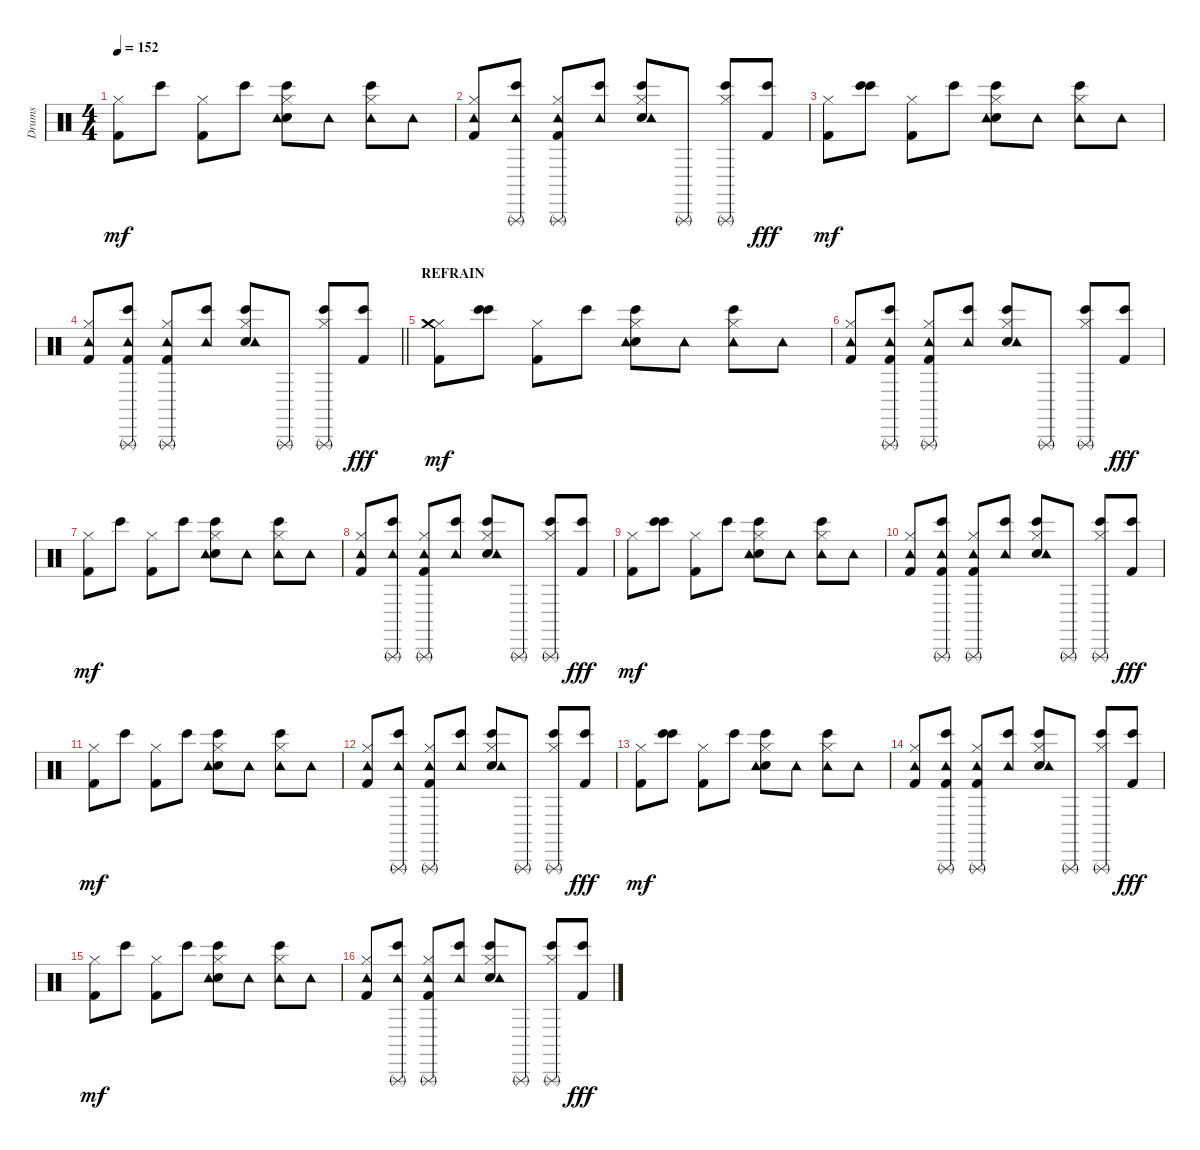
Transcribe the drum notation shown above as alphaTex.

\track ("Drums" "Drums") {instrument percussion}
\staff {score}
\articulation defaults
\ts (4 4)
\tempo 152
\clef neutral
\ks c
("Kick (hit) 2" "Hi-Hat (closed)").8{dy mf} "Bongo High (hit)".8 ("Kick (hit) 2" "Hi-Hat (closed)").8 "Bongo High (hit)".8 ("Bongo High (hit)" "Electric Snare (hit)" "Hi-Hat (closed)" "Tambourine (hit)").8 "Tambourine (hit)".8 ("Tambourine (hit)" "Bongo High (hit)" "Hi-Hat (closed)").8 "Tambourine (hit)".8 |
("Tambourine (hit)" "Kick (hit) 2" "Hi-Hat (closed)").8 ("Tambourine (hit)" "Bongo High (hit)" "Triangle (rnute)").8 ("Kick (hit) 2" "Hi-Hat (closed)" "Triangle (rnute)" "Tambourine (hit)").8 ("Tambourine (hit)" "Bongo High (hit)").8 ("Bongo High (hit)" "Electric Snare (hit)" "Hi-Hat (closed)" "Tambourine (hit)").8 "Triangle (rnute)".8 ("Bongo High (hit)" "Hi-Hat (closed)" "Triangle (rnute)").8 ("Bongo High (hit)" "Kick (hit) 2").8{dy fff} |
("Kick (hit) 2" "Hi-Hat (closed)").8{dy mf} ("Bongo High (hit)" "Bongo High (hit)").8 ("Kick (hit) 2" "Hi-Hat (closed)").8 "Bongo High (hit)".8 ("Bongo High (hit)" "Electric Snare (hit)" "Hi-Hat (closed)" "Tambourine (hit)").8 "Tambourine (hit)".8 ("Tambourine (hit)" "Bongo High (hit)" "Hi-Hat (closed)").8 "Tambourine (hit)".8 |
\barLineRight lightlight
("Tambourine (hit)" "Kick (hit) 2" "Hi-Hat (closed)").8 ("Tambourine (hit)" "Bongo High (hit)" "Kick (hit) 2" "Triangle (rnute)").8 ("Kick (hit) 2" "Hi-Hat (closed)" "Triangle (rnute)" "Tambourine (hit)").8 ("Tambourine (hit)" "Bongo High (hit)").8 ("Bongo High (hit)" "Electric Snare (hit)" "Hi-Hat (closed)" "Tambourine (hit)").8 "Triangle (rnute)".8 ("Bongo High (hit)" "Hi-Hat (closed)" "Triangle (rnute)").8 ("Bongo High (hit)" "Kick (hit) 2").8{dy fff} |
\section ("" "REFRAIN")
("Kick (hit) 2" "Hi-Hat (closed)" "Crash medium (hit)").8{dy mf} ("Bongo High (hit)" "Bongo High (hit)").8 ("Kick (hit) 2" "Hi-Hat (closed)").8 "Bongo High (hit)".8 ("Bongo High (hit)" "Electric Snare (hit)" "Hi-Hat (closed)" "Tambourine (hit)").8 "Tambourine (hit)".8 ("Tambourine (hit)" "Bongo High (hit)" "Hi-Hat (closed)").8 "Tambourine (hit)".8 |
("Tambourine (hit)" "Kick (hit) 2" "Hi-Hat (closed)").8 ("Tambourine (hit)" "Bongo High (hit)" "Kick (hit) 2" "Triangle (rnute)").8 ("Kick (hit) 2" "Hi-Hat (closed)" "Triangle (rnute)" "Tambourine (hit)").8 ("Tambourine (hit)" "Bongo High (hit)").8 ("Bongo High (hit)" "Electric Snare (hit)" "Hi-Hat (closed)" "Tambourine (hit)").8 "Triangle (rnute)".8 ("Bongo High (hit)" "Hi-Hat (closed)" "Triangle (rnute)").8 ("Bongo High (hit)" "Kick (hit) 2").8{dy fff} |
("Kick (hit) 2" "Hi-Hat (closed)").8{dy mf} "Bongo High (hit)".8 ("Kick (hit) 2" "Hi-Hat (closed)").8 "Bongo High (hit)".8 ("Bongo High (hit)" "Electric Snare (hit)" "Hi-Hat (closed)" "Tambourine (hit)").8 "Tambourine (hit)".8 ("Tambourine (hit)" "Bongo High (hit)" "Hi-Hat (closed)").8 "Tambourine (hit)".8 |
("Tambourine (hit)" "Kick (hit) 2" "Hi-Hat (closed)").8 ("Tambourine (hit)" "Bongo High (hit)" "Triangle (rnute)").8 ("Kick (hit) 2" "Hi-Hat (closed)" "Triangle (rnute)" "Tambourine (hit)").8 ("Tambourine (hit)" "Bongo High (hit)").8 ("Bongo High (hit)" "Electric Snare (hit)" "Hi-Hat (closed)" "Tambourine (hit)").8 "Triangle (rnute)".8 ("Bongo High (hit)" "Hi-Hat (closed)" "Triangle (rnute)").8 ("Bongo High (hit)" "Kick (hit) 2").8{dy fff} |
("Kick (hit) 2" "Hi-Hat (closed)").8{dy mf} ("Bongo High (hit)" "Bongo High (hit)").8 ("Kick (hit) 2" "Hi-Hat (closed)").8 "Bongo High (hit)".8 ("Bongo High (hit)" "Electric Snare (hit)" "Hi-Hat (closed)" "Tambourine (hit)").8 "Tambourine (hit)".8 ("Tambourine (hit)" "Bongo High (hit)" "Hi-Hat (closed)").8 "Tambourine (hit)".8 |
("Tambourine (hit)" "Kick (hit) 2" "Hi-Hat (closed)").8 ("Tambourine (hit)" "Bongo High (hit)" "Kick (hit) 2" "Triangle (rnute)").8 ("Kick (hit) 2" "Hi-Hat (closed)" "Triangle (rnute)" "Tambourine (hit)").8 ("Tambourine (hit)" "Bongo High (hit)").8 ("Bongo High (hit)" "Electric Snare (hit)" "Hi-Hat (closed)" "Tambourine (hit)").8 "Triangle (rnute)".8 ("Bongo High (hit)" "Hi-Hat (closed)" "Triangle (rnute)").8 ("Bongo High (hit)" "Kick (hit) 2").8{dy fff} |
("Kick (hit) 2" "Hi-Hat (closed)").8{dy mf} "Bongo High (hit)".8 ("Kick (hit) 2" "Hi-Hat (closed)").8 "Bongo High (hit)".8 ("Bongo High (hit)" "Electric Snare (hit)" "Hi-Hat (closed)" "Tambourine (hit)").8 "Tambourine (hit)".8 ("Tambourine (hit)" "Bongo High (hit)" "Hi-Hat (closed)").8 "Tambourine (hit)".8 |
("Tambourine (hit)" "Kick (hit) 2" "Hi-Hat (closed)").8 ("Tambourine (hit)" "Bongo High (hit)" "Triangle (rnute)").8 ("Kick (hit) 2" "Hi-Hat (closed)" "Triangle (rnute)" "Tambourine (hit)").8 ("Tambourine (hit)" "Bongo High (hit)").8 ("Bongo High (hit)" "Electric Snare (hit)" "Hi-Hat (closed)" "Tambourine (hit)").8 "Triangle (rnute)".8 ("Bongo High (hit)" "Hi-Hat (closed)" "Triangle (rnute)").8 ("Bongo High (hit)" "Kick (hit) 2").8{dy fff} |
("Kick (hit) 2" "Hi-Hat (closed)").8{dy mf} ("Bongo High (hit)" "Bongo High (hit)").8 ("Kick (hit) 2" "Hi-Hat (closed)").8 "Bongo High (hit)".8 ("Bongo High (hit)" "Electric Snare (hit)" "Hi-Hat (closed)" "Tambourine (hit)").8 "Tambourine (hit)".8 ("Tambourine (hit)" "Bongo High (hit)" "Hi-Hat (closed)").8 "Tambourine (hit)".8 |
("Tambourine (hit)" "Kick (hit) 2" "Hi-Hat (closed)").8 ("Tambourine (hit)" "Bongo High (hit)" "Kick (hit) 2" "Triangle (rnute)").8 ("Kick (hit) 2" "Hi-Hat (closed)" "Triangle (rnute)" "Tambourine (hit)").8 ("Tambourine (hit)" "Bongo High (hit)").8 ("Bongo High (hit)" "Electric Snare (hit)" "Hi-Hat (closed)" "Tambourine (hit)").8 "Triangle (rnute)".8 ("Bongo High (hit)" "Hi-Hat (closed)" "Triangle (rnute)").8 ("Bongo High (hit)" "Kick (hit) 2").8{dy fff} |
("Kick (hit) 2" "Hi-Hat (closed)").8{dy mf} "Bongo High (hit)".8 ("Kick (hit) 2" "Hi-Hat (closed)").8 "Bongo High (hit)".8 ("Bongo High (hit)" "Electric Snare (hit)" "Hi-Hat (closed)" "Tambourine (hit)").8 "Tambourine (hit)".8 ("Tambourine (hit)" "Bongo High (hit)" "Hi-Hat (closed)").8 "Tambourine (hit)".8 |
("Tambourine (hit)" "Kick (hit) 2" "Hi-Hat (closed)").8 ("Tambourine (hit)" "Bongo High (hit)" "Triangle (rnute)").8 ("Kick (hit) 2" "Hi-Hat (closed)" "Triangle (rnute)" "Tambourine (hit)").8 ("Tambourine (hit)" "Bongo High (hit)").8 ("Bongo High (hit)" "Electric Snare (hit)" "Hi-Hat (closed)" "Tambourine (hit)").8 "Triangle (rnute)".8 ("Bongo High (hit)" "Hi-Hat (closed)" "Triangle (rnute)").8 ("Bongo High (hit)" "Kick (hit) 2").8{dy fff}
